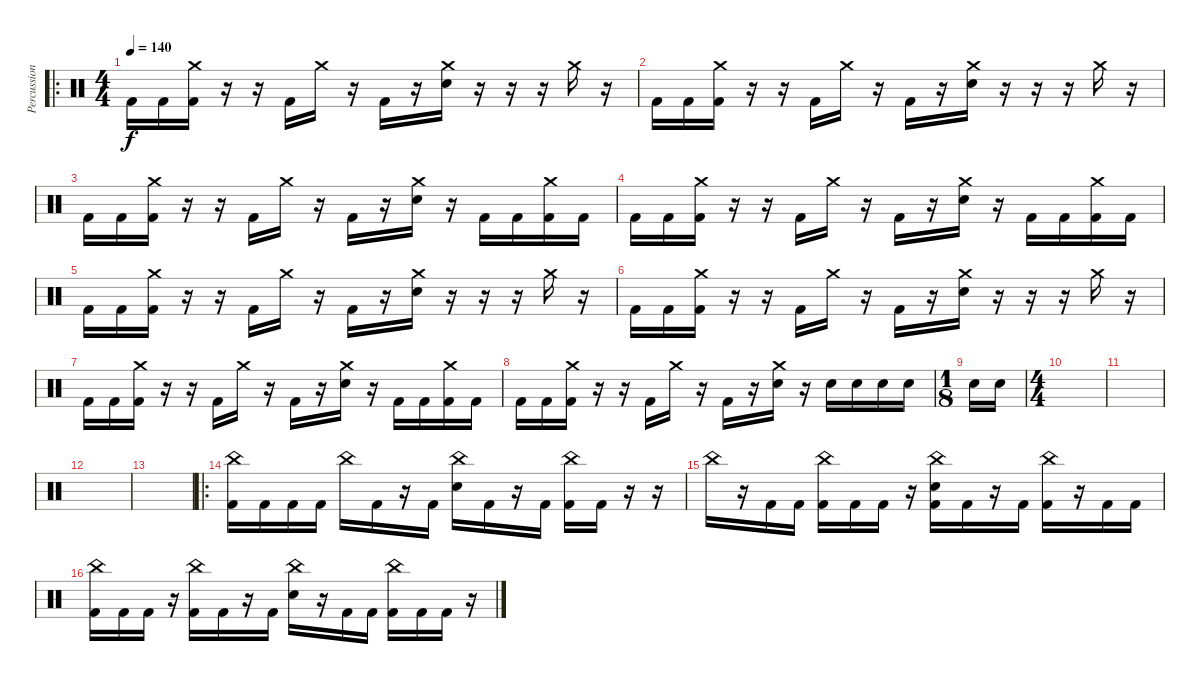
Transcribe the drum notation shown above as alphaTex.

\track ("Percussion" "Percussion") {instrument percussion}
\staff {score}
\articulation defaults
\ro
\ts (4 4)
\tempo 140
\clef neutral
\ks c "Kick (hit) 2".16{dy f} "Kick (hit) 2".16
("Crash medium (hit)" "Kick (hit) 2").16 r.16 r.16 "Kick (hit) 2".16 "Crash medium (hit)".16 r.16 "Kick (hit) 2".16 r.16 ("Crash medium (hit)" "Electric Snare (hit)").16 r.16 r.16 r.16 "Crash medium (hit)".16 r.16 |
"Kick (hit) 2".16 "Kick (hit) 2".16 ("Crash medium (hit)" "Kick (hit) 2").16 r.16 r.16 "Kick (hit) 2".16 "Crash medium (hit)".16 r.16 "Kick (hit) 2".16 r.16 ("Crash medium (hit)" "Electric Snare (hit)").16 r.16 r.16 r.16 "Crash medium (hit)".16 r.16 |
"Kick (hit) 2".16 "Kick (hit) 2".16 ("Crash medium (hit)" "Kick (hit) 2").16 r.16 r.16 "Kick (hit) 2".16 "Crash medium (hit)".16 r.16 "Kick (hit) 2".16 r.16 ("Crash medium (hit)" "Electric Snare (hit)").16 r.16 "Kick (hit) 2".16 "Kick (hit) 2".16 ("Crash medium (hit)" "Kick (hit) 2").16 "Kick (hit) 2".16 |
"Kick (hit) 2".16 "Kick (hit) 2".16 ("Crash medium (hit)" "Kick (hit) 2").16 r.16 r.16 "Kick (hit) 2".16 "Crash medium (hit)".16 r.16 "Kick (hit) 2".16 r.16 ("Crash medium (hit)" "Electric Snare (hit)").16 r.16 "Kick (hit) 2".16 "Kick (hit) 2".16 ("Crash medium (hit)" "Kick (hit) 2").16 "Kick (hit) 2".16 |
"Kick (hit) 2".16 "Kick (hit) 2".16 ("Crash medium (hit)" "Kick (hit) 2").16 r.16 r.16 "Kick (hit) 2".16 "Crash medium (hit)".16 r.16 "Kick (hit) 2".16 r.16 ("Crash medium (hit)" "Electric Snare (hit)").16 r.16 r.16 r.16 "Crash medium (hit)".16 r.16 |
"Kick (hit) 2".16 "Kick (hit) 2".16 ("Crash medium (hit)" "Kick (hit) 2").16 r.16 r.16 "Kick (hit) 2".16 "Crash medium (hit)".16 r.16 "Kick (hit) 2".16 r.16 ("Crash medium (hit)" "Electric Snare (hit)").16 r.16 r.16 r.16 "Crash medium (hit)".16 r.16 |
"Kick (hit) 2".16 "Kick (hit) 2".16 ("Crash medium (hit)" "Kick (hit) 2").16 r.16 r.16 "Kick (hit) 2".16 "Crash medium (hit)".16 r.16 "Kick (hit) 2".16 r.16 ("Crash medium (hit)" "Electric Snare (hit)").16 r.16 "Kick (hit) 2".16 "Kick (hit) 2".16 ("Crash medium (hit)" "Kick (hit) 2").16 "Kick (hit) 2".16 |
"Kick (hit) 2".16 "Kick (hit) 2".16 ("Crash medium (hit)" "Kick (hit) 2").16 r.16 r.16 "Kick (hit) 2".16 "Crash medium (hit)".16 r.16 "Kick (hit) 2".16 r.16 ("Crash medium (hit)" "Electric Snare (hit)").16 r.16 "Electric Snare (hit)".16 "Electric Snare (hit)".16 "Electric Snare (hit)".16 "Electric Snare (hit)".16 |
\ts (1 8)
"Electric Snare (hit)".16 "Electric Snare (hit)".16 |
\ts (4 4)
|
|
|
|
\ro
("China (hit)" "Kick (hit) 2").16 "Kick (hit) 2".16 "Kick (hit) 2".16 "Kick (hit) 2".16 "China (hit)".16 "Kick (hit) 2".16 r.16 "Kick (hit) 2".16 ("China (hit)" "Electric Snare (hit)").16 "Kick (hit) 2".16 r.16 "Kick (hit) 2".16 ("China (hit)" "Kick (hit) 2").16 "Kick (hit) 2".16 r.16 r.16 |
"China (hit)".16 r.16 "Kick (hit) 2".16 "Kick (hit) 2".16 ("China (hit)" "Kick (hit) 2").16 "Kick (hit) 2".16 "Kick (hit) 2".16 r.16 ("China (hit)" "Kick (hit) 2" "Electric Snare (hit)").16 "Kick (hit) 2".16 r.16 "Kick (hit) 2".16 ("China (hit)" "Kick (hit) 2").16 r.16 "Kick (hit) 2".16 "Kick (hit) 2".16 |
("China (hit)" "Kick (hit) 2").16 "Kick (hit) 2".16 "Kick (hit) 2".16 r.16 ("China (hit)" "Kick (hit) 2").16 "Kick (hit) 2".16 r.16 "Kick (hit) 2".16 ("China (hit)" "Electric Snare (hit)").16 r.16 "Kick (hit) 2".16 "Kick (hit) 2".16 ("China (hit)" "Kick (hit) 2").16 "Kick (hit) 2".16 "Kick (hit) 2".16 r.16
